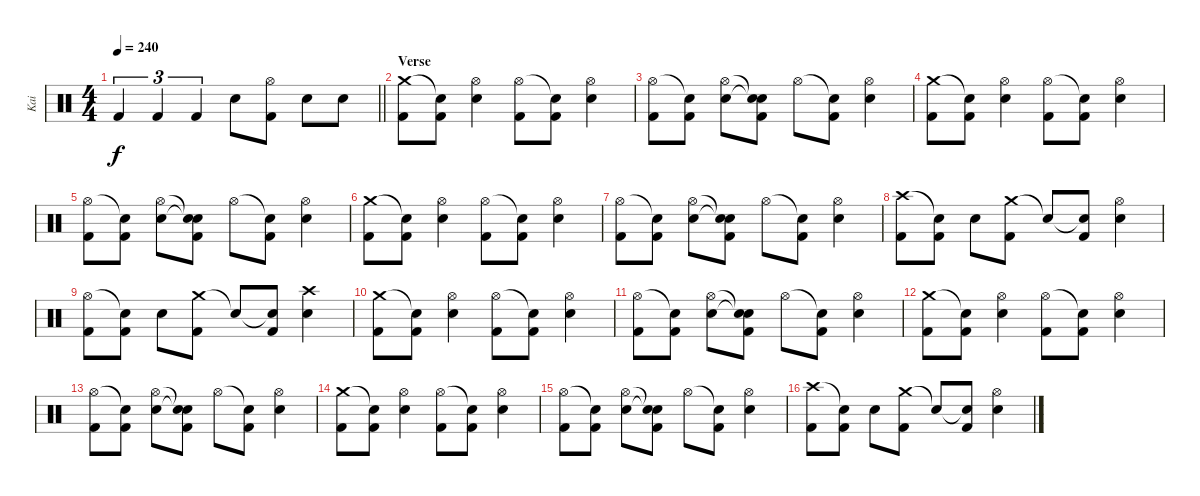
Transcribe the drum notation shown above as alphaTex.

\track ("Kai" "Kai") {instrument percussion}
\staff {score}
\articulation defaults
\ts (4 4)
\tempo 240
\clef neutral
\barLineRight lightlight
\ks c "Kick (hit) 2".4{tu (3 2) dy f} "Kick (hit) 2".4{tu (3 2)} "Kick (hit) 2".4{tu (3 2)} "Snare (hit) 2".8
("Hi-Hat (open)" "Kick (hit) 2").8 "Snare (hit) 2".8 "Snare (hit) 2".8 |
\section ("" "Verse")
("Crash medium (hit)" "Kick (hit) 2").8 ("Snare (hit)"{t} "Kick (hit) 2").8 ("Hi-Hat (open)" "Snare (hit) 2").4 ("Hi-Hat (open)" "Kick (hit) 2").8 ("Snare (hit)"{t} "Kick (hit) 2").8 ("Hi-Hat (open)" "Snare (hit) 2").4 |
("Hi-Hat (open)" "Kick (hit) 2").8 ("Snare (hit)"{t} "Kick (hit) 2").8 ("Hi-Hat (open)" "Snare (hit) 2").8 ("Snare (hit)"{t} "Snare (hit)"{t} "Kick (hit) 2").8 "Hi-Hat (open)".8 ("Snare (hit)"{t} "Kick (hit) 2").8 ("Hi-Hat (open)" "Snare (hit) 2").4 |
("Crash medium (hit)" "Kick (hit) 2").8 ("Snare (hit)"{t} "Kick (hit) 2").8 ("Hi-Hat (open)" "Snare (hit) 2").4 ("Hi-Hat (open)" "Kick (hit) 2").8 ("Snare (hit)"{t} "Kick (hit) 2").8 ("Hi-Hat (open)" "Snare (hit) 2").4 |
("Hi-Hat (open)" "Kick (hit) 2").8 ("Snare (hit)"{t} "Kick (hit) 2").8 ("Hi-Hat (open)" "Snare (hit) 2").8 ("Snare (hit)"{t} "Snare (hit)"{t} "Kick (hit) 2").8 "Hi-Hat (open)".8 ("Snare (hit)"{t} "Kick (hit) 2").8 ("Hi-Hat (open)" "Snare (hit) 2").4 |
("Crash medium (hit)" "Kick (hit) 2").8 ("Snare (hit)"{t} "Kick (hit) 2").8 ("Hi-Hat (open)" "Snare (hit) 2").4 ("Hi-Hat (open)" "Kick (hit) 2").8 ("Snare (hit)"{t} "Kick (hit) 2").8 ("Hi-Hat (open)" "Snare (hit) 2").4 |
("Hi-Hat (open)" "Kick (hit) 2").8 ("Snare (hit)"{t} "Kick (hit) 2").8 ("Hi-Hat (open)" "Snare (hit) 2").8 ("Snare (hit)"{t} "Snare (hit)"{t} "Kick (hit) 2").8 "Hi-Hat (open)".8 ("Snare (hit)"{t} "Kick (hit) 2").8 ("Hi-Hat (open)" "Snare (hit) 2").4 |
("Crash high (hit)" "Kick (hit) 2").8 ("Snare (hit)"{t} "Kick (hit) 2").8 "Snare (hit) 2".8 ("Crash medium (hit)" "Kick (hit) 2").8 "Snare (hit)"{t}.8 ("Snare (hit)"{t} "Kick (hit) 2").8 ("Hi-Hat (open)" "Snare (hit) 2").4 |
("Hi-Hat (open)" "Kick (hit) 2").8 ("Snare (hit)"{t} "Kick (hit) 2").8 "Snare (hit) 2".8 ("Crash medium (hit)" "Kick (hit) 2").8 "Snare (hit)"{t}.8 ("Snare (hit)"{t} "Kick (hit) 2").8 ("Crash high (hit)" "Snare (hit) 2").4 |
("Crash medium (hit)" "Kick (hit) 2").8 ("Snare (hit)"{t} "Kick (hit) 2").8 ("Hi-Hat (open)" "Snare (hit) 2").4 ("Hi-Hat (open)" "Kick (hit) 2").8 ("Snare (hit)"{t} "Kick (hit) 2").8 ("Hi-Hat (open)" "Snare (hit) 2").4 |
("Hi-Hat (open)" "Kick (hit) 2").8 ("Snare (hit)"{t} "Kick (hit) 2").8 ("Hi-Hat (open)" "Snare (hit) 2").8 ("Snare (hit)"{t} "Snare (hit)"{t} "Kick (hit) 2").8 "Hi-Hat (open)".8 ("Snare (hit)"{t} "Kick (hit) 2").8 ("Hi-Hat (open)" "Snare (hit) 2").4 |
("Crash medium (hit)" "Kick (hit) 2").8 ("Snare (hit)"{t} "Kick (hit) 2").8 ("Hi-Hat (open)" "Snare (hit) 2").4 ("Hi-Hat (open)" "Kick (hit) 2").8 ("Snare (hit)"{t} "Kick (hit) 2").8 ("Hi-Hat (open)" "Snare (hit) 2").4 |
("Hi-Hat (open)" "Kick (hit) 2").8 ("Snare (hit)"{t} "Kick (hit) 2").8 ("Hi-Hat (open)" "Snare (hit) 2").8 ("Snare (hit)"{t} "Snare (hit)"{t} "Kick (hit) 2").8 "Hi-Hat (open)".8 ("Snare (hit)"{t} "Kick (hit) 2").8 ("Hi-Hat (open)" "Snare (hit) 2").4 |
("Crash medium (hit)" "Kick (hit) 2").8 ("Snare (hit)"{t} "Kick (hit) 2").8 ("Hi-Hat (open)" "Snare (hit) 2").4 ("Hi-Hat (open)" "Kick (hit) 2").8 ("Snare (hit)"{t} "Kick (hit) 2").8 ("Hi-Hat (open)" "Snare (hit) 2").4 |
("Hi-Hat (open)" "Kick (hit) 2").8 ("Snare (hit)"{t} "Kick (hit) 2").8 ("Hi-Hat (open)" "Snare (hit) 2").8 ("Snare (hit)"{t} "Snare (hit)"{t} "Kick (hit) 2").8 "Hi-Hat (open)".8 ("Snare (hit)"{t} "Kick (hit) 2").8 ("Hi-Hat (open)" "Snare (hit) 2").4 |
("Crash high (hit)" "Kick (hit) 2").8 ("Snare (hit)"{t} "Kick (hit) 2").8 "Snare (hit) 2".8 ("Crash medium (hit)" "Kick (hit) 2").8 "Snare (hit)"{t}.8 ("Snare (hit)"{t} "Kick (hit) 2").8 ("Hi-Hat (open)" "Snare (hit) 2").4
